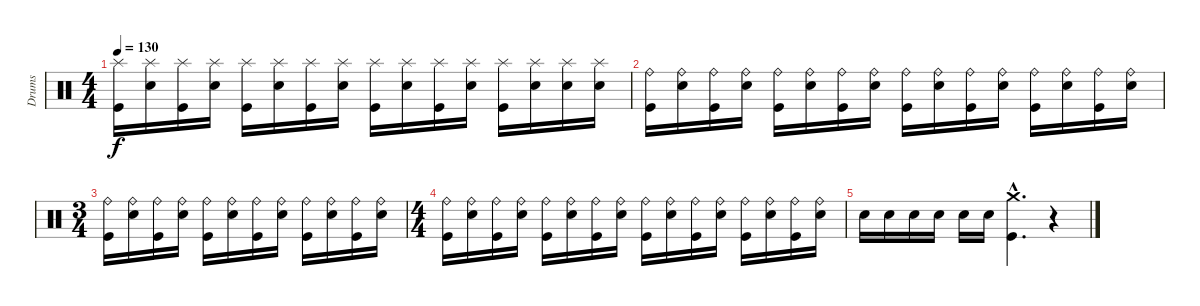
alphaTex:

\track ("Drums" "Drums") {instrument percussion}
\staff {score}
\articulation defaults
\ts (4 4)
\tempo 130
\clef neutral
\ks c
("Kick (hit)" "Splash (hit)").16{dy f} ("Electric Snare (hit)" "Splash (hit)").16 ("Kick (hit)" "Splash (hit)").16 ("Electric Snare (hit)" "Splash (hit)").16 ("Kick (hit)" "Splash (hit)").16 ("Electric Snare (hit)" "Splash (hit)").16 ("Kick (hit)" "Splash (hit)").16 ("Electric Snare (hit)" "Splash (hit)").16 ("Kick (hit)" "Splash (hit)").16 ("Electric Snare (hit)" "Splash (hit)").16 ("Kick (hit)" "Splash (hit)").16 ("Electric Snare (hit)" "Splash (hit)").16 ("Kick (hit)" "Splash (hit)").16 ("Electric Snare (hit)" "Splash (hit)").16 ("Electric Snare (hit)" "Splash (hit)").16 ("Electric Snare (hit)" "Splash (hit)").16 |
("Kick (hit)" "Ride (bell)").16 ("Electric Snare (hit)" "Ride (bell)").16 ("Kick (hit)" "Ride (bell)").16 ("Electric Snare (hit)" "Ride (bell)").16 ("Kick (hit)" "Ride (bell)").16 ("Electric Snare (hit)" "Ride (bell)").16 ("Kick (hit)" "Ride (bell)").16 ("Electric Snare (hit)" "Ride (bell)").16 ("Kick (hit)" "Ride (bell)").16 ("Electric Snare (hit)" "Ride (bell)").16 ("Kick (hit)" "Ride (bell)").16 ("Electric Snare (hit)" "Ride (bell)").16 ("Kick (hit)" "Ride (bell)").16 ("Electric Snare (hit)" "Ride (bell)").16 ("Kick (hit)" "Ride (bell)").16 ("Electric Snare (hit)" "Ride (bell)").16 |
\ts (3 4)
("Kick (hit)" "Ride (bell)").16 ("Electric Snare (hit)" "Ride (bell)").16 ("Kick (hit)" "Ride (bell)").16 ("Electric Snare (hit)" "Ride (bell)").16 ("Kick (hit)" "Ride (bell)").16 ("Electric Snare (hit)" "Ride (bell)").16 ("Kick (hit)" "Ride (bell)").16 ("Electric Snare (hit)" "Ride (bell)").16 ("Kick (hit)" "Ride (bell)").16 ("Electric Snare (hit)" "Ride (bell)").16 ("Kick (hit)" "Ride (bell)").16 ("Electric Snare (hit)" "Ride (bell)").16 |
\ts (4 4)
("Kick (hit)" "Ride (bell)").16 ("Electric Snare (hit)" "Ride (bell)").16 ("Kick (hit)" "Ride (bell)").16 ("Electric Snare (hit)" "Ride (bell)").16 ("Kick (hit)" "Ride (bell)").16 ("Electric Snare (hit)" "Ride (bell)").16 ("Kick (hit)" "Ride (bell)").16 ("Electric Snare (hit)" "Ride (bell)").16 ("Kick (hit)" "Ride (bell)").16 ("Electric Snare (hit)" "Ride (bell)").16 ("Kick (hit)" "Ride (bell)").16 ("Electric Snare (hit)" "Ride (bell)").16 ("Kick (hit)" "Ride (bell)").16 ("Electric Snare (hit)" "Ride (bell)").16 ("Kick (hit)" "Ride (bell)").16 ("Electric Snare (hit)" "Ride (bell)").16 |
"Electric Snare (hit)".16 "Electric Snare (hit)".16 "Electric Snare (hit)".16 "Electric Snare (hit)".16 "Electric Snare (hit)".16 "Electric Snare (hit)".16 ("Kick (hit)"{hac} "Crash medium (hit)"{hac}).4{d} r.4
